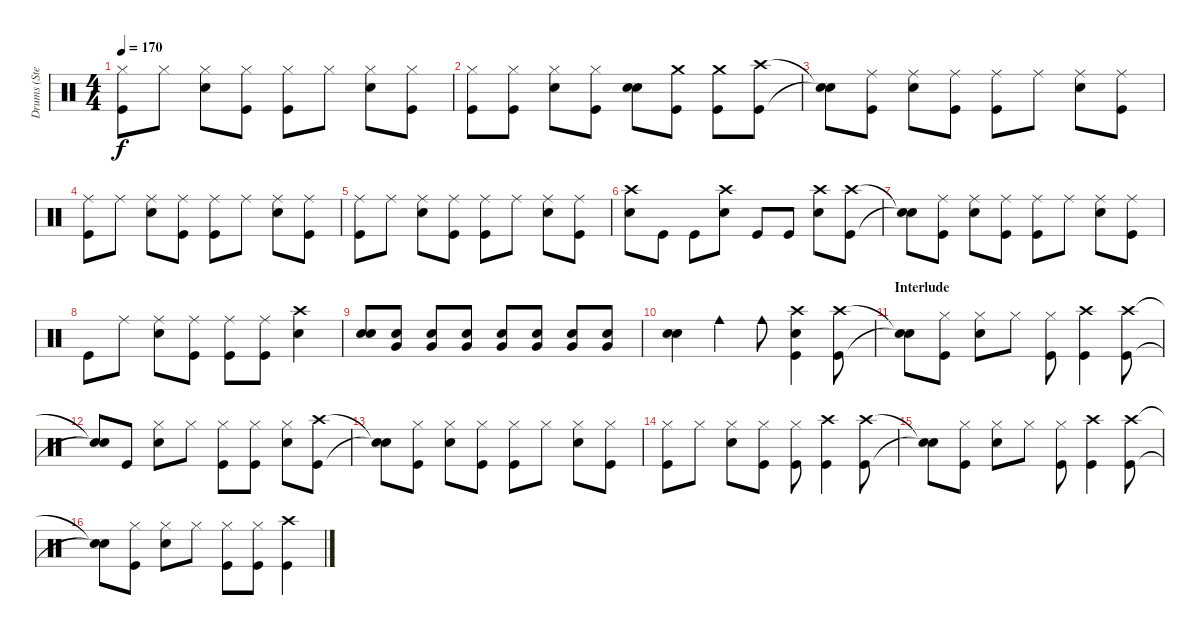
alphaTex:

\track ("Drums (Steven)" "Drums (Ste") {instrument percussion}
\staff {score}
\articulation defaults
\ts (4 4)
\tempo 170
\clef neutral
\ks c
("Hi-Hat (closed)" "Kick (hit)").8{dy f} "Hi-Hat (closed)".8 ("Hi-Hat (closed)" "Snare (hit) 2").8 ("Hi-Hat (closed)" "Kick (hit)").8 ("Hi-Hat (closed)" "Kick (hit)").8 "Hi-Hat (closed)".8 ("Hi-Hat (closed)" "Snare (hit) 2").8 ("Hi-Hat (closed)" "Kick (hit)").8 |
("Hi-Hat (closed)" "Kick (hit)").8 ("Hi-Hat (closed)" "Kick (hit)").8 ("Hi-Hat (closed)" "Snare (hit) 2").8 ("Hi-Hat (closed)" "Kick (hit)").8 ("Snare (hit) 2" "Snare (hit) 2").8 ("Crash medium (hit)" "Kick (hit)").8 ("Crash medium (hit)" "Kick (hit)").8 ("Crash high (hit)" "Kick (hit)").8 |
("Snare (hit)"{t} "Snare (hit)"{t}).8 ("Ride (middle)" "Kick (hit)").8 ("Ride (middle)" "Snare (hit) 2").8 ("Ride (middle)" "Kick (hit)").8 ("Ride (middle)" "Kick (hit)").8 "Ride (middle)".8 ("Ride (middle)" "Snare (hit) 2").8 ("Ride (middle)" "Kick (hit)").8 |
("Ride (middle)" "Kick (hit)").8 "Ride (middle)".8 ("Ride (middle)" "Snare (hit) 2").8 ("Ride (middle)" "Kick (hit)").8 ("Ride (middle)" "Kick (hit)").8 "Ride (middle)".8 ("Ride (middle)" "Snare (hit) 2").8 ("Ride (middle)" "Kick (hit)").8 |
("Ride (middle)" "Kick (hit)").8 "Ride (middle)".8 ("Ride (middle)" "Snare (hit) 2").8 ("Ride (middle)" "Kick (hit)").8 ("Ride (middle)" "Kick (hit)").8 "Ride (middle)".8 ("Ride (middle)" "Snare (hit) 2").8 ("Ride (middle)" "Kick (hit)").8 |
("Crash high (hit)" "Snare (hit) 2").8 "Kick (hit)".8 "Kick (hit)".8 ("Crash high (hit)" "Snare (hit) 2").8 "Kick (hit)".8 "Kick (hit)".8 ("Crash high (hit)" "Snare (hit) 2").8 ("Crash high (hit)" "Kick (hit)").8 |
("Snare (hit)"{t} "Snare (hit)"{t}).8 ("Ride (middle)" "Kick (hit)").8 ("Ride (middle)" "Snare (hit) 2").8 ("Ride (middle)" "Kick (hit)").8 ("Ride (middle)" "Kick (hit)").8 "Ride (middle)".8 ("Ride (middle)" "Snare (hit) 2").8 ("Ride (middle)" "Kick (hit)").8 |
"Kick (hit)".8 "Ride (middle)".8 ("Ride (middle)" "Snare (hit) 2").8 ("Ride (middle)" "Kick (hit)").8 ("Ride (middle)" "Kick (hit)").8 ("Ride (middle)" "Kick (hit)").8 ("Crash high (hit)" "Snare (hit) 2").4 |
("Snare (hit) 2" "Snare (hit) 2").8 ("Snare (hit) 2" "Very Low Tom (hit)").8 ("Snare (hit) 2" "Very Low Tom (hit)").8 ("Snare (hit) 2" "Very Low Tom (hit)").8 ("Snare (hit) 2" "Very Low Tom (hit)").8 ("Snare (hit) 2" "Very Low Tom (hit)").8 ("Snare (hit) 2" "Very Low Tom (hit)").8 ("Snare (hit) 2" "Very Low Tom (hit)").8 |
("Snare (hit) 2" "Snare (hit) 2").4 "Cowbell medium (hit)".4 "Cowbell medium (hit)".8 ("Crash high (hit)" "Kick (hit)" "Snare (hit)").4 ("Crash high (hit)" "Kick (hit)").8 |
\section ("" "Interlude")
("Snare (hit)"{t} "Snare (hit)"{t}).8 ("Hi-Hat (closed)" "Kick (hit)").8 ("Hi-Hat (closed)" "Snare (hit) 2").8 "Hi-Hat (closed)".8 ("Hi-Hat (closed)" "Kick (hit)").8 ("Crash high (hit)" "Kick (hit)").4 ("Crash high (hit)" "Kick (hit)").8 |
("Snare (hit)"{t} "Snare (hit)"{t}).8 "Kick (hit)".8 ("Hi-Hat (closed)" "Snare (hit) 2").8 "Hi-Hat (closed)".8 ("Hi-Hat (closed)" "Kick (hit)").8 ("Hi-Hat (closed)" "Kick (hit)").8 ("Hi-Hat (closed)" "Snare (hit) 2").8 ("Crash high (hit)" "Kick (hit)").8 |
("Snare (hit)"{t} "Snare (hit)"{t}).8 ("Hi-Hat (closed)" "Kick (hit)").8 ("Hi-Hat (closed)" "Snare (hit) 2").8 ("Hi-Hat (closed)" "Kick (hit)").8 ("Hi-Hat (closed)" "Kick (hit)").8 "Hi-Hat (closed)".8 ("Hi-Hat (closed)" "Snare (hit) 2").8 ("Hi-Hat (closed)" "Kick (hit)").8 |
("Hi-Hat (closed)" "Kick (hit)").8 "Hi-Hat (closed)".8 ("Hi-Hat (closed)" "Snare (hit) 2").8 ("Hi-Hat (closed)" "Kick (hit)").8 ("Hi-Hat (closed)" "Kick (hit)").8 ("Crash high (hit)" "Kick (hit)").4 ("Crash high (hit)" "Kick (hit)").8 |
("Snare (hit)"{t} "Snare (hit)"{t}).8 ("Hi-Hat (closed)" "Kick (hit)").8 ("Hi-Hat (closed)" "Snare (hit) 2").8 "Hi-Hat (closed)".8 ("Hi-Hat (closed)" "Kick (hit)").8 ("Crash high (hit)" "Kick (hit)").4 ("Crash high (hit)" "Kick (hit)").8 |
("Snare (hit)"{t} "Snare (hit)"{t}).8 ("Hi-Hat (closed)" "Kick (hit)").8 ("Hi-Hat (closed)" "Snare (hit) 2").8 "Hi-Hat (closed)".8 ("Hi-Hat (closed)" "Kick (hit)").8 ("Hi-Hat (closed)" "Kick (hit)").8 ("Crash high (hit)" "Kick (hit)").4
